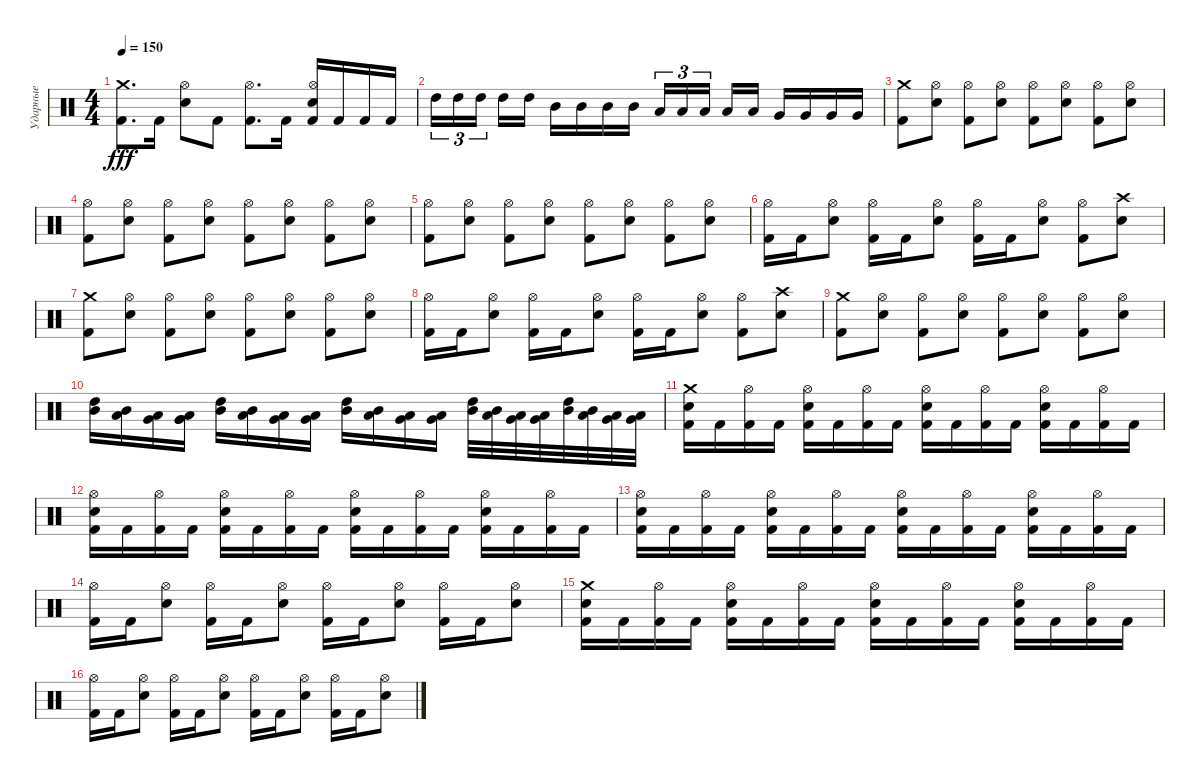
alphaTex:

\track ("Ударные" "Ударные") {instrument percussion}
\staff {score}
\articulation defaults
\ts (4 4)
\tempo 150
\clef neutral
\ks c
("Crash medium (hit)" "Kick (hit) 2").8{d dy fff} "Kick (hit) 2".16 ("Hi-Hat (open)" "Electric Snare (hit)").8 "Kick (hit) 2".8 ("Hi-Hat (open)" "Kick (hit) 2").8{d} "Kick (hit) 2".16 ("Hi-Hat (open)" "Electric Snare (hit)" "Kick (hit) 2").16 "Kick (hit) 2".16 "Kick (hit) 2".16 "Kick (hit) 2".16 |
"High Tom (hit)".16{tu (3 2)} "High Tom (hit)".16{tu (3 2)} "High Tom (hit)".16{tu (3 2) beam splitsecondary} "High Tom (hit)".16 "High Tom (hit)".16 "Mid Tom (hit)".16 "Mid Tom (hit)".16 "Mid Tom (hit)".16 "Mid Tom (hit)".16 "Low Tom (hit)".16{tu (3 2)} "Low Tom (hit)".16{tu (3 2)} "Low Tom (hit)".16{tu (3 2) beam splitsecondary} "Low Tom (hit)".16 "Low Tom (hit)".16 "Very Low Tom (hit)".16 "Very Low Tom (hit)".16 "Very Low Tom (hit)".16 "Very Low Tom (hit)".16 |
("Crash medium (hit)" "Kick (hit) 2").8 ("Hi-Hat (open)" "Electric Snare (hit)").8 ("Hi-Hat (open)" "Kick (hit) 2").8 ("Hi-Hat (open)" "Electric Snare (hit)").8 ("Hi-Hat (open)" "Kick (hit) 2").8 ("Hi-Hat (open)" "Electric Snare (hit)").8 ("Hi-Hat (open)" "Kick (hit) 2").8 ("Hi-Hat (open)" "Electric Snare (hit)").8 |
("Hi-Hat (open)" "Kick (hit) 2").8 ("Hi-Hat (open)" "Electric Snare (hit)").8 ("Hi-Hat (open)" "Kick (hit) 2").8 ("Hi-Hat (open)" "Electric Snare (hit)").8 ("Hi-Hat (open)" "Kick (hit) 2").8 ("Hi-Hat (open)" "Electric Snare (hit)").8 ("Hi-Hat (open)" "Kick (hit) 2").8 ("Hi-Hat (open)" "Electric Snare (hit)").8 |
("Hi-Hat (open)" "Kick (hit) 2").8 ("Hi-Hat (open)" "Electric Snare (hit)").8 ("Hi-Hat (open)" "Kick (hit) 2").8 ("Hi-Hat (open)" "Electric Snare (hit)").8 ("Hi-Hat (open)" "Kick (hit) 2").8 ("Hi-Hat (open)" "Electric Snare (hit)").8 ("Hi-Hat (open)" "Kick (hit) 2").8 ("Hi-Hat (open)" "Electric Snare (hit)").8 |
("Hi-Hat (open)" "Kick (hit) 2").16 "Kick (hit) 2".16 ("Hi-Hat (open)" "Electric Snare (hit)").8 ("Hi-Hat (open)" "Kick (hit) 2").16 "Kick (hit) 2".16 ("Hi-Hat (open)" "Electric Snare (hit)").8 ("Hi-Hat (open)" "Kick (hit) 2").16 "Kick (hit) 2".16 ("Hi-Hat (open)" "Electric Snare (hit)").8 ("Hi-Hat (open)" "Kick (hit) 2").8 ("Crash high (hit)" "Electric Snare (hit)").8 |
("Crash medium (hit)" "Kick (hit) 2").8 ("Hi-Hat (open)" "Electric Snare (hit)").8 ("Hi-Hat (open)" "Kick (hit) 2").8 ("Hi-Hat (open)" "Electric Snare (hit)").8 ("Hi-Hat (open)" "Kick (hit) 2").8 ("Hi-Hat (open)" "Electric Snare (hit)").8 ("Hi-Hat (open)" "Kick (hit) 2").8 ("Hi-Hat (open)" "Electric Snare (hit)").8 |
("Hi-Hat (open)" "Kick (hit) 2").16 "Kick (hit) 2".16 ("Hi-Hat (open)" "Electric Snare (hit)").8 ("Hi-Hat (open)" "Kick (hit) 2").16 "Kick (hit) 2".16 ("Hi-Hat (open)" "Electric Snare (hit)").8 ("Hi-Hat (open)" "Kick (hit) 2").16 "Kick (hit) 2".16 ("Hi-Hat (open)" "Electric Snare (hit)").8 ("Hi-Hat (open)" "Kick (hit) 2").8 ("Crash high (hit)" "Electric Snare (hit)").8 |
("Crash medium (hit)" "Kick (hit) 2").8 ("Hi-Hat (open)" "Electric Snare (hit)").8 ("Hi-Hat (open)" "Kick (hit) 2").8 ("Hi-Hat (open)" "Electric Snare (hit)").8 ("Hi-Hat (open)" "Kick (hit) 2").8 ("Hi-Hat (open)" "Electric Snare (hit)").8 ("Hi-Hat (open)" "Kick (hit) 2").8 ("Hi-Hat (open)" "Electric Snare (hit)").8 |
("High Tom (hit)" "Mid Tom (hit)").16 ("Mid Tom (hit)" "Low Tom (hit)").16 ("Low Tom (hit)" "Very Low Tom (hit)").16 ("Very Low Tom (hit)" "Very Low Tom (hit)" "Low Floor Tom (hit)").16 ("High Tom (hit)" "Mid Tom (hit)").16 ("Mid Tom (hit)" "Low Tom (hit)").16 ("Low Tom (hit)" "Very Low Tom (hit)").16 ("Very Low Tom (hit)" "Low Floor Tom (hit)").16 ("High Tom (hit)" "Mid Tom (hit)").16 ("Mid Tom (hit)" "Low Tom (hit)").16 ("Low Tom (hit)" "Very Low Tom (hit)").16 ("Very Low Tom (hit)" "Low Floor Tom (hit)").16 ("High Tom (hit)" "Mid Tom (hit)").32 ("Mid Tom (hit)" "Low Tom (hit)").32 ("Low Tom (hit)" "Very Low Tom (hit)").32 ("Very Low Tom (hit)" "Low Floor Tom (hit)").32 ("High Tom (hit)" "Mid Tom (hit)").32 ("Mid Tom (hit)" "Low Tom (hit)").32 ("Low Tom (hit)" "Very Low Tom (hit)").32 ("Very Low Tom (hit)" "Low Floor Tom (hit)").32 |
("Crash medium (hit)" "Electric Snare (hit)" "Kick (hit) 2").16 "Kick (hit) 2".16 ("Hi-Hat (open)" "Kick (hit) 2").16 "Kick (hit) 2".16 ("Hi-Hat (open)" "Electric Snare (hit)" "Kick (hit) 2").16 "Kick (hit) 2".16 ("Hi-Hat (open)" "Kick (hit) 2").16 "Kick (hit) 2".16 ("Hi-Hat (open)" "Electric Snare (hit)" "Kick (hit) 2").16 "Kick (hit) 2".16 ("Hi-Hat (open)" "Kick (hit) 2").16 "Kick (hit) 2".16 ("Hi-Hat (open)" "Electric Snare (hit)" "Kick (hit) 2").16 "Kick (hit) 2".16 ("Hi-Hat (open)" "Kick (hit) 2").16 "Kick (hit) 2".16 |
("Hi-Hat (open)" "Electric Snare (hit)" "Kick (hit) 2").16 "Kick (hit) 2".16 ("Hi-Hat (open)" "Kick (hit) 2").16 "Kick (hit) 2".16 ("Hi-Hat (open)" "Electric Snare (hit)" "Kick (hit) 2").16 "Kick (hit) 2".16 ("Hi-Hat (open)" "Kick (hit) 2").16 "Kick (hit) 2".16 ("Hi-Hat (open)" "Electric Snare (hit)" "Kick (hit) 2").16 "Kick (hit) 2".16 ("Hi-Hat (open)" "Kick (hit) 2").16 "Kick (hit) 2".16 ("Hi-Hat (open)" "Electric Snare (hit)" "Kick (hit) 2").16 "Kick (hit) 2".16 ("Hi-Hat (open)" "Kick (hit) 2").16 "Kick (hit) 2".16 |
("Hi-Hat (open)" "Electric Snare (hit)" "Kick (hit) 2").16 "Kick (hit) 2".16 ("Hi-Hat (open)" "Kick (hit) 2").16 "Kick (hit) 2".16 ("Hi-Hat (open)" "Electric Snare (hit)" "Kick (hit) 2").16 "Kick (hit) 2".16 ("Hi-Hat (open)" "Kick (hit) 2").16 "Kick (hit) 2".16 ("Hi-Hat (open)" "Electric Snare (hit)" "Kick (hit) 2").16 "Kick (hit) 2".16 ("Hi-Hat (open)" "Kick (hit) 2").16 "Kick (hit) 2".16 ("Hi-Hat (open)" "Electric Snare (hit)" "Kick (hit) 2").16 "Kick (hit) 2".16 ("Hi-Hat (open)" "Kick (hit) 2").16 "Kick (hit) 2".16 |
("Hi-Hat (open)" "Kick (hit) 2").16 "Kick (hit) 2".16 ("Hi-Hat (open)" "Electric Snare (hit)").8 ("Hi-Hat (open)" "Kick (hit) 2").16 "Kick (hit) 2".16 ("Hi-Hat (open)" "Electric Snare (hit)").8 ("Hi-Hat (open)" "Kick (hit) 2").16 "Kick (hit) 2".16 ("Hi-Hat (open)" "Electric Snare (hit)").8 ("Hi-Hat (open)" "Kick (hit) 2").16 "Kick (hit) 2".16 ("Hi-Hat (open)" "Electric Snare (hit)").8 |
("Crash medium (hit)" "Electric Snare (hit)" "Kick (hit) 2").16 "Kick (hit) 2".16 ("Hi-Hat (open)" "Kick (hit) 2").16 "Kick (hit) 2".16 ("Hi-Hat (open)" "Electric Snare (hit)" "Kick (hit) 2").16 "Kick (hit) 2".16 ("Hi-Hat (open)" "Kick (hit) 2").16 "Kick (hit) 2".16 ("Hi-Hat (open)" "Electric Snare (hit)" "Kick (hit) 2").16 "Kick (hit) 2".16 ("Hi-Hat (open)" "Kick (hit) 2").16 "Kick (hit) 2".16 ("Hi-Hat (open)" "Electric Snare (hit)" "Kick (hit) 2").16 "Kick (hit) 2".16 ("Hi-Hat (open)" "Kick (hit) 2").16 "Kick (hit) 2".16 |
("Hi-Hat (open)" "Kick (hit) 2").16 "Kick (hit) 2".16 ("Hi-Hat (open)" "Electric Snare (hit)").8 ("Hi-Hat (open)" "Kick (hit) 2").16 "Kick (hit) 2".16 ("Hi-Hat (open)" "Electric Snare (hit)").8 ("Hi-Hat (open)" "Kick (hit) 2").16 "Kick (hit) 2".16 ("Hi-Hat (open)" "Electric Snare (hit)").8 ("Hi-Hat (open)" "Kick (hit) 2").16 "Kick (hit) 2".16 ("Hi-Hat (open)" "Electric Snare (hit)").8
